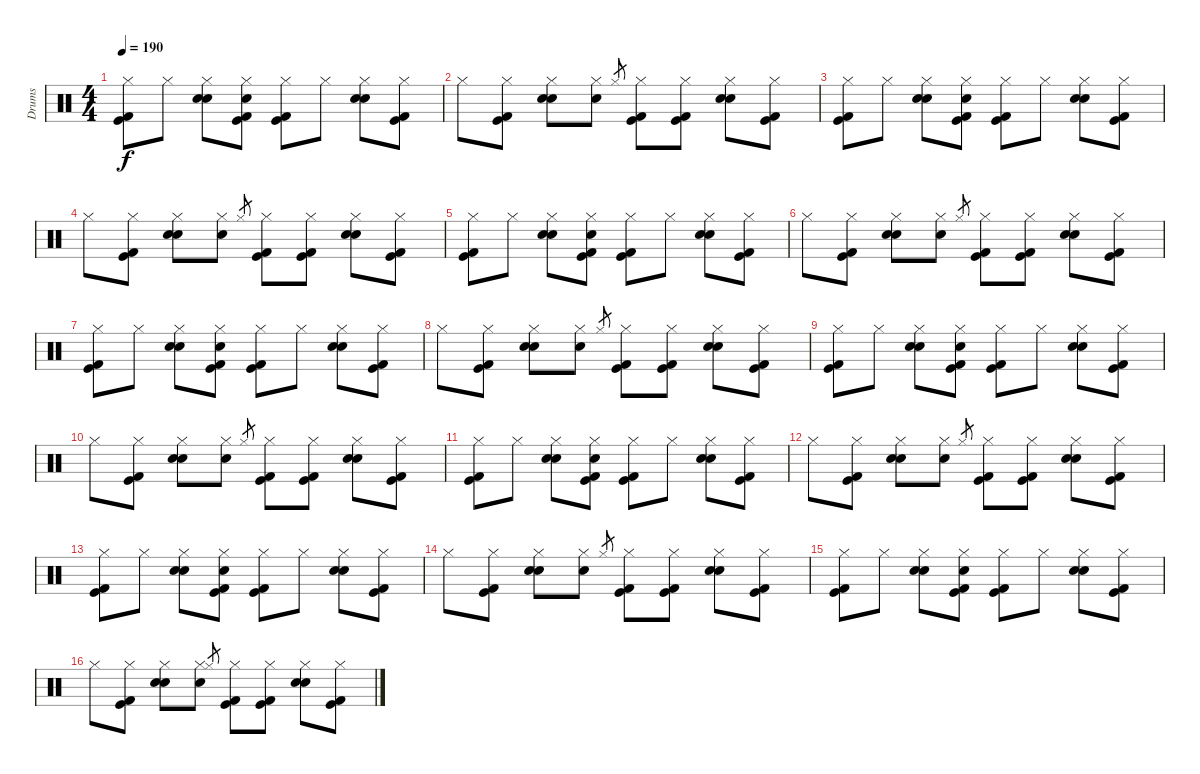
\track ("Drums" "Drums") {instrument percussion}
\staff {score}
\articulation defaults
\ts (4 4)
\tempo 190
\clef neutral
\ks c
("Hi-Hat (closed)" "Kick (hit)" "Kick (hit) 2").8{dy f} "Hi-Hat (closed)".8 ("Hand Clap (hit)" "Hi-Hat (closed)" "Snare (hit) 2").8 ("Hand Clap (hit)" "Hi-Hat (closed)" "Kick (hit)" "Kick (hit) 2").8 ("Hi-Hat (closed)" "Kick (hit)" "Kick (hit) 2").8 "Hi-Hat (closed)".8 ("Hand Clap (hit)" "Hi-Hat (closed)" "Snare (hit) 2").8 ("Hi-Hat (closed)" "Kick (hit)" "Kick (hit) 2").8 |
"Hi-Hat (closed)".8 ("Hi-Hat (closed)" "Kick (hit)" "Kick (hit) 2").8 ("Hand Clap (hit)" "Hi-Hat (closed)" "Snare (hit) 2").8 ("Hand Clap (hit)" "Hi-Hat (closed)").8 "Hi-Hat (closed)".8{gr} ("Hi-Hat (closed)" "Kick (hit)" "Kick (hit) 2").8 ("Hi-Hat (closed)" "Kick (hit)" "Kick (hit) 2").8 ("Hand Clap (hit)" "Hi-Hat (closed)" "Snare (hit) 2").8 ("Hi-Hat (closed)" "Kick (hit)" "Kick (hit) 2").8 |
("Hi-Hat (closed)" "Kick (hit)" "Kick (hit) 2").8 "Hi-Hat (closed)".8 ("Hand Clap (hit)" "Hi-Hat (closed)" "Snare (hit) 2").8 ("Hand Clap (hit)" "Hi-Hat (closed)" "Kick (hit)" "Kick (hit) 2").8 ("Hi-Hat (closed)" "Kick (hit)" "Kick (hit) 2").8 "Hi-Hat (closed)".8 ("Hand Clap (hit)" "Hi-Hat (closed)" "Snare (hit) 2").8 ("Hi-Hat (closed)" "Kick (hit)" "Kick (hit) 2").8 |
"Hi-Hat (closed)".8 ("Hi-Hat (closed)" "Kick (hit)" "Kick (hit) 2").8 ("Hand Clap (hit)" "Hi-Hat (closed)" "Snare (hit) 2").8 ("Hand Clap (hit)" "Hi-Hat (closed)").8 "Hi-Hat (closed)".8{gr} ("Hi-Hat (closed)" "Kick (hit)" "Kick (hit) 2").8 ("Hi-Hat (closed)" "Kick (hit)" "Kick (hit) 2").8 ("Hand Clap (hit)" "Hi-Hat (closed)" "Snare (hit) 2").8 ("Hi-Hat (closed)" "Kick (hit)" "Kick (hit) 2").8 |
("Hi-Hat (closed)" "Kick (hit)" "Kick (hit) 2").8 "Hi-Hat (closed)".8 ("Hand Clap (hit)" "Hi-Hat (closed)" "Snare (hit) 2").8 ("Hand Clap (hit)" "Hi-Hat (closed)" "Kick (hit)" "Kick (hit) 2").8 ("Hi-Hat (closed)" "Kick (hit)" "Kick (hit) 2").8 "Hi-Hat (closed)".8 ("Hand Clap (hit)" "Hi-Hat (closed)" "Snare (hit) 2").8 ("Hi-Hat (closed)" "Kick (hit)" "Kick (hit) 2").8 |
"Hi-Hat (closed)".8 ("Hi-Hat (closed)" "Kick (hit)" "Kick (hit) 2").8 ("Hand Clap (hit)" "Hi-Hat (closed)" "Snare (hit) 2").8 ("Hand Clap (hit)" "Hi-Hat (closed)").8 "Hi-Hat (closed)".8{gr} ("Hi-Hat (closed)" "Kick (hit)" "Kick (hit) 2").8 ("Hi-Hat (closed)" "Kick (hit)" "Kick (hit) 2").8 ("Hand Clap (hit)" "Hi-Hat (closed)" "Snare (hit) 2").8 ("Hi-Hat (closed)" "Kick (hit)" "Kick (hit) 2").8 |
("Hi-Hat (closed)" "Kick (hit)" "Kick (hit) 2").8 "Hi-Hat (closed)".8 ("Hand Clap (hit)" "Hi-Hat (closed)" "Snare (hit) 2").8 ("Hand Clap (hit)" "Hi-Hat (closed)" "Kick (hit)" "Kick (hit) 2").8 ("Hi-Hat (closed)" "Kick (hit)" "Kick (hit) 2").8 "Hi-Hat (closed)".8 ("Hand Clap (hit)" "Hi-Hat (closed)" "Snare (hit) 2").8 ("Hi-Hat (closed)" "Kick (hit)" "Kick (hit) 2").8 |
"Hi-Hat (closed)".8 ("Hi-Hat (closed)" "Kick (hit)" "Kick (hit) 2").8 ("Hand Clap (hit)" "Hi-Hat (closed)" "Snare (hit) 2").8 ("Hand Clap (hit)" "Hi-Hat (closed)").8 "Hi-Hat (closed)".8{gr} ("Hi-Hat (closed)" "Kick (hit)" "Kick (hit) 2").8 ("Hi-Hat (closed)" "Kick (hit)" "Kick (hit) 2").8 ("Hand Clap (hit)" "Hi-Hat (closed)" "Snare (hit) 2").8 ("Hi-Hat (closed)" "Kick (hit)" "Kick (hit) 2").8 |
("Hi-Hat (closed)" "Kick (hit)" "Kick (hit) 2").8 "Hi-Hat (closed)".8 ("Hand Clap (hit)" "Hi-Hat (closed)" "Snare (hit) 2").8 ("Hand Clap (hit)" "Hi-Hat (closed)" "Kick (hit)" "Kick (hit) 2").8 ("Hi-Hat (closed)" "Kick (hit)" "Kick (hit) 2").8 "Hi-Hat (closed)".8 ("Hand Clap (hit)" "Hi-Hat (closed)" "Snare (hit) 2").8 ("Hi-Hat (closed)" "Kick (hit)" "Kick (hit) 2").8 |
"Hi-Hat (closed)".8 ("Hi-Hat (closed)" "Kick (hit)" "Kick (hit) 2").8 ("Hand Clap (hit)" "Hi-Hat (closed)" "Snare (hit) 2").8 ("Hand Clap (hit)" "Hi-Hat (closed)").8 "Hi-Hat (closed)".8{gr} ("Hi-Hat (closed)" "Kick (hit)" "Kick (hit) 2").8 ("Hi-Hat (closed)" "Kick (hit)" "Kick (hit) 2").8 ("Hand Clap (hit)" "Hi-Hat (closed)" "Snare (hit) 2").8 ("Hi-Hat (closed)" "Kick (hit)" "Kick (hit) 2").8 |
("Hi-Hat (closed)" "Kick (hit)" "Kick (hit) 2").8 "Hi-Hat (closed)".8 ("Hand Clap (hit)" "Hi-Hat (closed)" "Snare (hit) 2").8 ("Hand Clap (hit)" "Hi-Hat (closed)" "Kick (hit)" "Kick (hit) 2").8 ("Hi-Hat (closed)" "Kick (hit)" "Kick (hit) 2").8 "Hi-Hat (closed)".8 ("Hand Clap (hit)" "Hi-Hat (closed)" "Snare (hit) 2").8 ("Hi-Hat (closed)" "Kick (hit)" "Kick (hit) 2").8 |
"Hi-Hat (closed)".8 ("Hi-Hat (closed)" "Kick (hit)" "Kick (hit) 2").8 ("Hand Clap (hit)" "Hi-Hat (closed)" "Snare (hit) 2").8 ("Hand Clap (hit)" "Hi-Hat (closed)").8 "Hi-Hat (closed)".8{gr} ("Hi-Hat (closed)" "Kick (hit)" "Kick (hit) 2").8 ("Hi-Hat (closed)" "Kick (hit)" "Kick (hit) 2").8 ("Hand Clap (hit)" "Hi-Hat (closed)" "Snare (hit) 2").8 ("Hi-Hat (closed)" "Kick (hit)" "Kick (hit) 2").8 |
("Hi-Hat (closed)" "Kick (hit)" "Kick (hit) 2").8 "Hi-Hat (closed)".8 ("Hand Clap (hit)" "Hi-Hat (closed)" "Snare (hit) 2").8 ("Hand Clap (hit)" "Hi-Hat (closed)" "Kick (hit)" "Kick (hit) 2").8 ("Hi-Hat (closed)" "Kick (hit)" "Kick (hit) 2").8 "Hi-Hat (closed)".8 ("Hand Clap (hit)" "Hi-Hat (closed)" "Snare (hit) 2").8 ("Hi-Hat (closed)" "Kick (hit)" "Kick (hit) 2").8 |
"Hi-Hat (closed)".8 ("Hi-Hat (closed)" "Kick (hit)" "Kick (hit) 2").8 ("Hand Clap (hit)" "Hi-Hat (closed)" "Snare (hit) 2").8 ("Hand Clap (hit)" "Hi-Hat (closed)").8 "Hi-Hat (closed)".8{gr} ("Hi-Hat (closed)" "Kick (hit)" "Kick (hit) 2").8 ("Hi-Hat (closed)" "Kick (hit)" "Kick (hit) 2").8 ("Hand Clap (hit)" "Hi-Hat (closed)" "Snare (hit) 2").8 ("Hi-Hat (closed)" "Kick (hit)" "Kick (hit) 2").8 |
("Hi-Hat (closed)" "Kick (hit)" "Kick (hit) 2").8 "Hi-Hat (closed)".8 ("Hand Clap (hit)" "Hi-Hat (closed)" "Snare (hit) 2").8 ("Hand Clap (hit)" "Hi-Hat (closed)" "Kick (hit)" "Kick (hit) 2").8 ("Hi-Hat (closed)" "Kick (hit)" "Kick (hit) 2").8 "Hi-Hat (closed)".8 ("Hand Clap (hit)" "Hi-Hat (closed)" "Snare (hit) 2").8 ("Hi-Hat (closed)" "Kick (hit)" "Kick (hit) 2").8 |
"Hi-Hat (closed)".8 ("Hi-Hat (closed)" "Kick (hit)" "Kick (hit) 2").8 ("Hand Clap (hit)" "Hi-Hat (closed)" "Snare (hit) 2").8 ("Hand Clap (hit)" "Hi-Hat (closed)").8 "Hi-Hat (closed)".8{gr} ("Hi-Hat (closed)" "Kick (hit)" "Kick (hit) 2").8 ("Hi-Hat (closed)" "Kick (hit)" "Kick (hit) 2").8 ("Hand Clap (hit)" "Hi-Hat (closed)" "Snare (hit) 2").8 ("Hi-Hat (closed)" "Kick (hit)" "Kick (hit) 2").8
